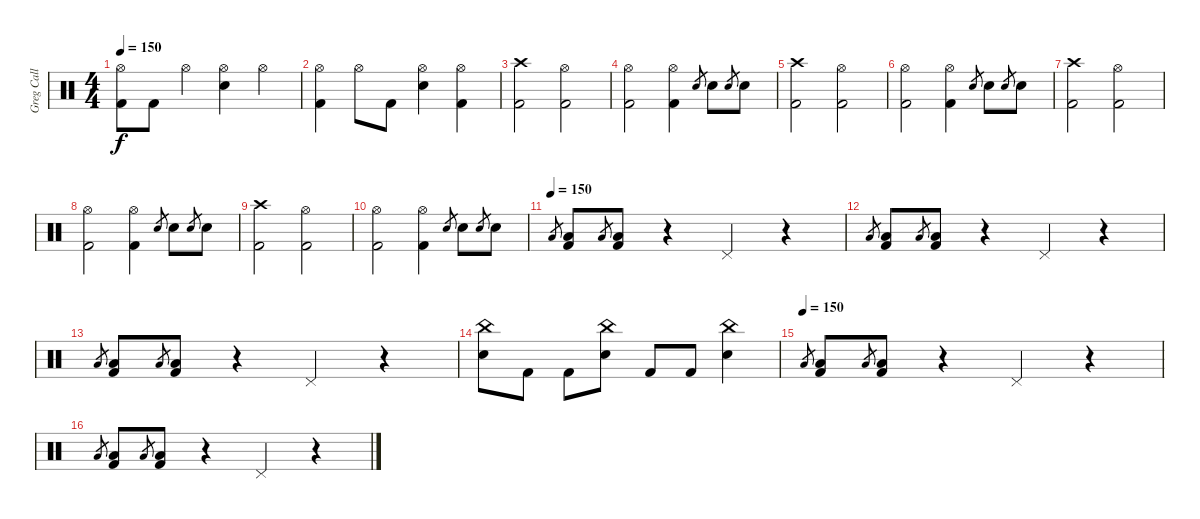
\track ("Greg Call (Drums)" "Greg Call ") {instrument percussion}
\staff {score}
\articulation defaults
\ts (4 4)
\tempo 150
\clef neutral
\ks c
("Hi-Hat (open)" "Kick (hit) 2").8{dy f} "Kick (hit) 2".8 "Hi-Hat (open)".4 ("Hi-Hat (open)" "Snare (hit) 2").4 "Hi-Hat (open)".4 |
("Hi-Hat (open)" "Kick (hit) 2").4 "Hi-Hat (open)".8 "Kick (hit) 2".8 ("Hi-Hat (open)" "Snare (hit) 2").4 ("Hi-Hat (open)" "Kick (hit) 2").4 |
("Crash high (hit)" "Kick (hit) 2").2 ("Hi-Hat (open)" "Kick (hit) 2").2 |
("Hi-Hat (open)" "Kick (hit) 2").2 ("Hi-Hat (open)" "Kick (hit) 2").4 "Snare (hit) 2".8{gr} "Snare (hit) 2".8 "Snare (hit) 2".8{gr} "Snare (hit) 2".8 |
("Crash high (hit)" "Kick (hit) 2").2 ("Hi-Hat (open)" "Kick (hit) 2").2 |
("Hi-Hat (open)" "Kick (hit) 2").2 ("Hi-Hat (open)" "Kick (hit) 2").4 "Snare (hit) 2".8{gr} "Snare (hit) 2".8 "Snare (hit) 2".8{gr} "Snare (hit) 2".8 |
("Crash high (hit)" "Kick (hit) 2").2 ("Hi-Hat (open)" "Kick (hit) 2").2 |
("Hi-Hat (open)" "Kick (hit) 2").2 ("Hi-Hat (open)" "Kick (hit) 2").4 "Snare (hit) 2".8{gr} "Snare (hit) 2".8 "Snare (hit) 2".8{gr} "Snare (hit) 2".8 |
("Crash high (hit)" "Kick (hit) 2").2 ("Hi-Hat (open)" "Kick (hit) 2").2 |
("Hi-Hat (open)" "Kick (hit) 2").2 ("Hi-Hat (open)" "Kick (hit) 2").4 "Snare (hit) 2".8{gr} "Snare (hit) 2".8 "Snare (hit) 2".8{gr} "Snare (hit) 2".8 |
\tempo (150)
"Low Floor Tom (hit)".8{gr} ("Low Floor Tom (hit)" "Kick (hit) 2").8{volume 16} "Low Floor Tom (hit)".8{gr} ("Low Floor Tom (hit)" "Kick (hit) 2").8 r.4 "Pedal Hi-Hat (hit)".4 r.4 |
"Low Floor Tom (hit)".8{gr} ("Low Floor Tom (hit)" "Kick (hit) 2").8{volume 16} "Low Floor Tom (hit)".8{gr} ("Low Floor Tom (hit)" "Kick (hit) 2").8 r.4 "Pedal Hi-Hat (hit)".4 r.4 |
"Low Floor Tom (hit)".8{gr} ("Low Floor Tom (hit)" "Kick (hit) 2").8{volume 16} "Low Floor Tom (hit)".8{gr} ("Low Floor Tom (hit)" "Kick (hit) 2").8 r.4 "Pedal Hi-Hat (hit)".4 r.4 |
("China (hit)" "Snare (hit) 2").8 "Kick (hit) 2".8 "Kick (hit) 2".8 ("China (hit)" "Snare (hit) 2").8 "Kick (hit) 2".8 "Kick (hit) 2".8 ("China (hit)" "Snare (hit) 2").4 |
\tempo (150)
"Low Floor Tom (hit)".8{gr} ("Low Floor Tom (hit)" "Kick (hit) 2").8{volume 16} "Low Floor Tom (hit)".8{gr} ("Low Floor Tom (hit)" "Kick (hit) 2").8 r.4 "Pedal Hi-Hat (hit)".4 r.4 |
"Low Floor Tom (hit)".8{gr} ("Low Floor Tom (hit)" "Kick (hit) 2").8{volume 16} "Low Floor Tom (hit)".8{gr} ("Low Floor Tom (hit)" "Kick (hit) 2").8 r.4 "Pedal Hi-Hat (hit)".4 r.4
